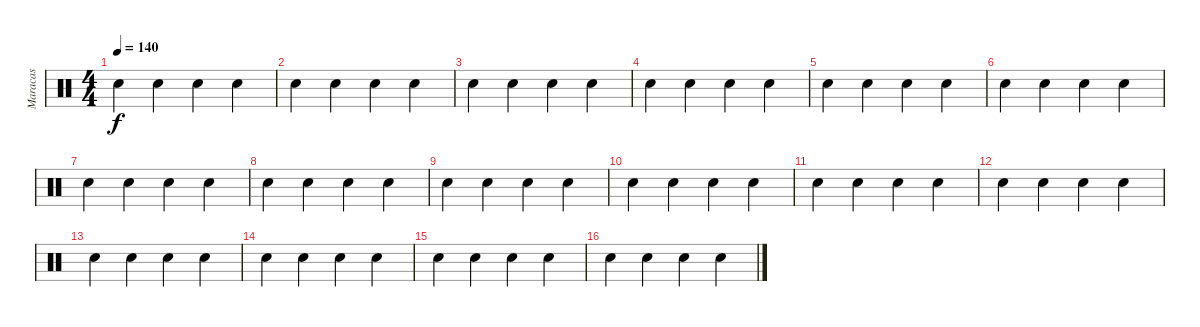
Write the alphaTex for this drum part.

\track ("Maracas" "Maracas") {instrument percussion}
\staff {score}
\articulation defaults
\ts (4 4)
\tempo 140
\clef neutral
\ks c "Snare (hit)".4{dy f} "Snare (hit)".4 "Snare (hit)".4 "Snare (hit)".4
|
"Snare (hit)".4 "Snare (hit)".4 "Snare (hit)".4 "Snare (hit)".4 |
"Snare (hit)".4 "Snare (hit)".4 "Snare (hit)".4 "Snare (hit)".4 |
"Snare (hit)".4 "Snare (hit)".4 "Snare (hit)".4 "Snare (hit)".4 |
"Snare (hit)".4 "Snare (hit)".4 "Snare (hit)".4 "Snare (hit)".4 |
"Snare (hit)".4 "Snare (hit)".4 "Snare (hit)".4 "Snare (hit)".4 |
"Snare (hit)".4 "Snare (hit)".4 "Snare (hit)".4 "Snare (hit)".4 |
"Snare (hit)".4 "Snare (hit)".4 "Snare (hit)".4 "Snare (hit)".4 |
"Snare (hit)".4 "Snare (hit)".4 "Snare (hit)".4 "Snare (hit)".4 |
"Snare (hit)".4 "Snare (hit)".4 "Snare (hit)".4 "Snare (hit)".4 |
"Snare (hit)".4 "Snare (hit)".4 "Snare (hit)".4 "Snare (hit)".4 |
"Snare (hit)".4 "Snare (hit)".4 "Snare (hit)".4 "Snare (hit)".4 |
"Snare (hit)".4 "Snare (hit)".4 "Snare (hit)".4 "Snare (hit)".4 |
"Snare (hit)".4 "Snare (hit)".4 "Snare (hit)".4 "Snare (hit)".4 |
"Snare (hit)".4 "Snare (hit)".4 "Snare (hit)".4 "Snare (hit)".4 |
"Snare (hit)".4 "Snare (hit)".4 "Snare (hit)".4 "Snare (hit)".4
